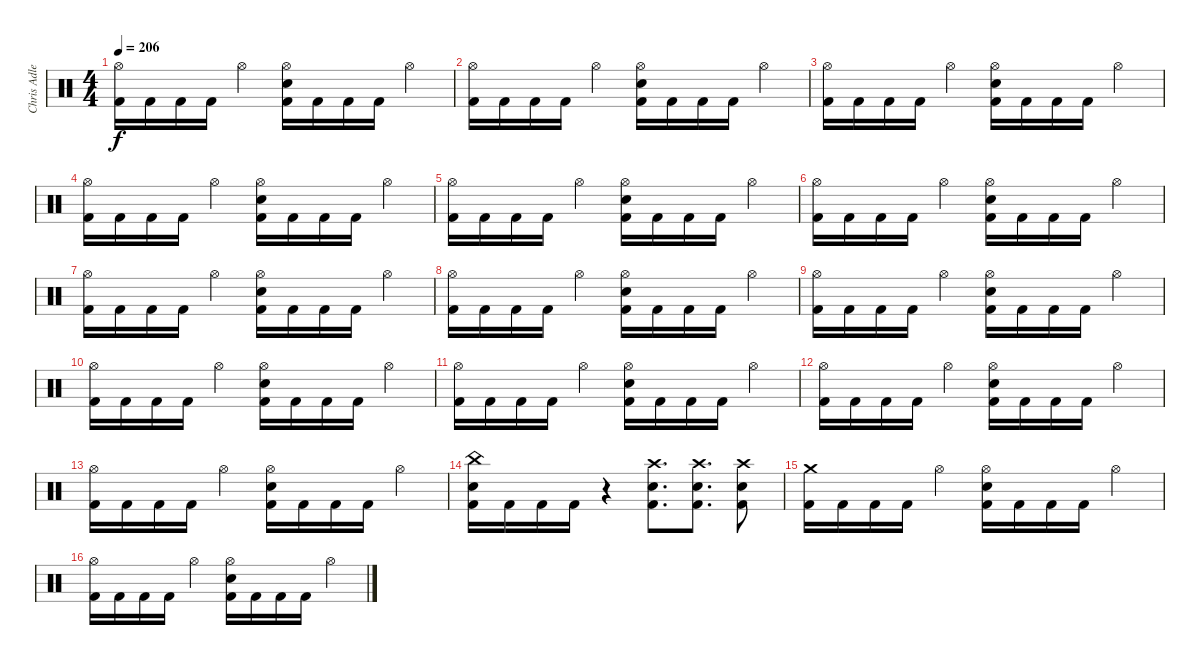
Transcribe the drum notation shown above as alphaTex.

\track ("Chris Adler" "Chris Adle") {instrument percussion}
\staff {score}
\articulation defaults
\ts (4 4)
\tempo 206
\clef neutral
\ks c
("Hi-Hat (open)" "Kick (hit) 2").16{dy f} "Kick (hit) 2".16 "Kick (hit) 2".16 "Kick (hit) 2".16 "Hi-Hat (open)".4 ("Hi-Hat (open)" "Electric Snare (hit)" "Kick (hit) 2").16 "Kick (hit) 2".16 "Kick (hit) 2".16 "Kick (hit) 2".16 "Hi-Hat (open)".4 |
("Hi-Hat (open)" "Kick (hit) 2").16 "Kick (hit) 2".16 "Kick (hit) 2".16 "Kick (hit) 2".16 "Hi-Hat (open)".4 ("Hi-Hat (open)" "Electric Snare (hit)" "Kick (hit) 2").16 "Kick (hit) 2".16 "Kick (hit) 2".16 "Kick (hit) 2".16 "Hi-Hat (open)".4 |
("Hi-Hat (open)" "Kick (hit) 2").16 "Kick (hit) 2".16 "Kick (hit) 2".16 "Kick (hit) 2".16 "Hi-Hat (open)".4 ("Hi-Hat (open)" "Electric Snare (hit)" "Kick (hit) 2").16 "Kick (hit) 2".16 "Kick (hit) 2".16 "Kick (hit) 2".16 "Hi-Hat (open)".4 |
("Hi-Hat (open)" "Kick (hit) 2").16 "Kick (hit) 2".16 "Kick (hit) 2".16 "Kick (hit) 2".16 "Hi-Hat (open)".4 ("Hi-Hat (open)" "Electric Snare (hit)" "Kick (hit) 2").16 "Kick (hit) 2".16 "Kick (hit) 2".16 "Kick (hit) 2".16 "Hi-Hat (open)".4 |
("Hi-Hat (open)" "Kick (hit) 2").16 "Kick (hit) 2".16 "Kick (hit) 2".16 "Kick (hit) 2".16 "Hi-Hat (open)".4 ("Hi-Hat (open)" "Electric Snare (hit)" "Kick (hit) 2").16 "Kick (hit) 2".16 "Kick (hit) 2".16 "Kick (hit) 2".16 "Hi-Hat (open)".4 |
("Hi-Hat (open)" "Kick (hit) 2").16 "Kick (hit) 2".16 "Kick (hit) 2".16 "Kick (hit) 2".16 "Hi-Hat (open)".4 ("Hi-Hat (open)" "Electric Snare (hit)" "Kick (hit) 2").16 "Kick (hit) 2".16 "Kick (hit) 2".16 "Kick (hit) 2".16 "Hi-Hat (open)".4 |
("Hi-Hat (open)" "Kick (hit) 2").16 "Kick (hit) 2".16 "Kick (hit) 2".16 "Kick (hit) 2".16 "Hi-Hat (open)".4 ("Hi-Hat (open)" "Electric Snare (hit)" "Kick (hit) 2").16 "Kick (hit) 2".16 "Kick (hit) 2".16 "Kick (hit) 2".16 "Hi-Hat (open)".4 |
("Hi-Hat (open)" "Kick (hit) 2").16 "Kick (hit) 2".16 "Kick (hit) 2".16 "Kick (hit) 2".16 "Hi-Hat (open)".4 ("Hi-Hat (open)" "Electric Snare (hit)" "Kick (hit) 2").16 "Kick (hit) 2".16 "Kick (hit) 2".16 "Kick (hit) 2".16 "Hi-Hat (open)".4 |
("Hi-Hat (open)" "Kick (hit) 2").16 "Kick (hit) 2".16 "Kick (hit) 2".16 "Kick (hit) 2".16 "Hi-Hat (open)".4 ("Hi-Hat (open)" "Electric Snare (hit)" "Kick (hit) 2").16 "Kick (hit) 2".16 "Kick (hit) 2".16 "Kick (hit) 2".16 "Hi-Hat (open)".4 |
("Hi-Hat (open)" "Kick (hit) 2").16 "Kick (hit) 2".16 "Kick (hit) 2".16 "Kick (hit) 2".16 "Hi-Hat (open)".4 ("Hi-Hat (open)" "Electric Snare (hit)" "Kick (hit) 2").16 "Kick (hit) 2".16 "Kick (hit) 2".16 "Kick (hit) 2".16 "Hi-Hat (open)".4 |
("Hi-Hat (open)" "Kick (hit) 2").16 "Kick (hit) 2".16 "Kick (hit) 2".16 "Kick (hit) 2".16 "Hi-Hat (open)".4 ("Hi-Hat (open)" "Electric Snare (hit)" "Kick (hit) 2").16 "Kick (hit) 2".16 "Kick (hit) 2".16 "Kick (hit) 2".16 "Hi-Hat (open)".4 |
("Hi-Hat (open)" "Kick (hit) 2").16 "Kick (hit) 2".16 "Kick (hit) 2".16 "Kick (hit) 2".16 "Hi-Hat (open)".4 ("Hi-Hat (open)" "Electric Snare (hit)" "Kick (hit) 2").16 "Kick (hit) 2".16 "Kick (hit) 2".16 "Kick (hit) 2".16 "Hi-Hat (open)".4 |
("Hi-Hat (open)" "Kick (hit) 2").16 "Kick (hit) 2".16 "Kick (hit) 2".16 "Kick (hit) 2".16 "Hi-Hat (open)".4 ("Hi-Hat (open)" "Electric Snare (hit)" "Kick (hit) 2").16 "Kick (hit) 2".16 "Kick (hit) 2".16 "Kick (hit) 2".16 "Hi-Hat (open)".4 |
("China (hit)" "Electric Snare (hit)" "Kick (hit) 2").16 "Kick (hit) 2".16 "Kick (hit) 2".16 "Kick (hit) 2".16 r.4 ("Crash high (hit)" "Electric Snare (hit)" "Kick (hit) 2").8{d} ("Crash high (hit)" "Electric Snare (hit)" "Kick (hit) 2").8{d} ("Crash high (hit)" "Electric Snare (hit)" "Kick (hit) 2").8 |
("Crash medium (hit)" "Kick (hit) 2").16 "Kick (hit) 2".16 "Kick (hit) 2".16 "Kick (hit) 2".16 "Hi-Hat (open)".4 ("Hi-Hat (open)" "Electric Snare (hit)" "Kick (hit) 2").16 "Kick (hit) 2".16 "Kick (hit) 2".16 "Kick (hit) 2".16 "Hi-Hat (open)".4 |
("Hi-Hat (open)" "Kick (hit) 2").16 "Kick (hit) 2".16 "Kick (hit) 2".16 "Kick (hit) 2".16 "Hi-Hat (open)".4 ("Hi-Hat (open)" "Electric Snare (hit)" "Kick (hit) 2").16 "Kick (hit) 2".16 "Kick (hit) 2".16 "Kick (hit) 2".16 "Hi-Hat (open)".4
